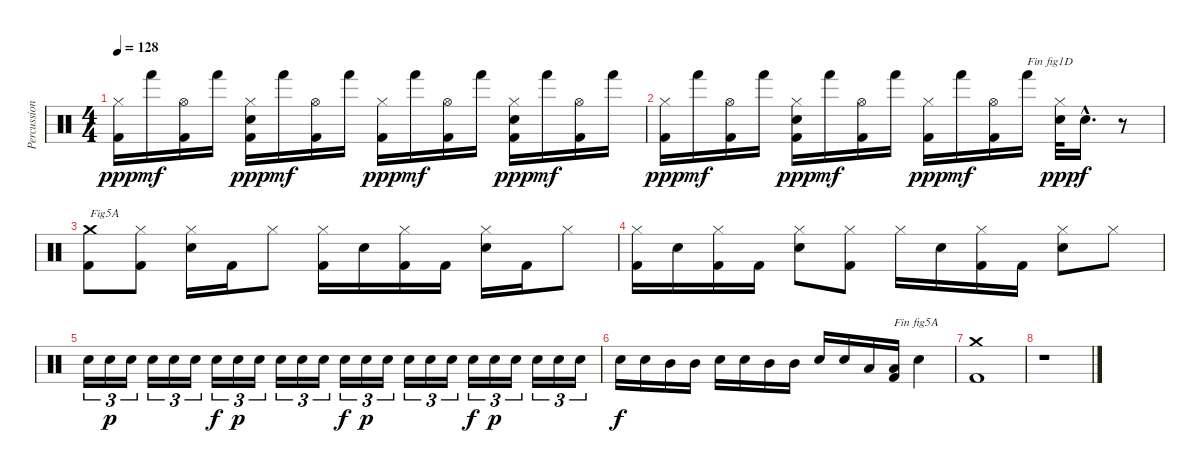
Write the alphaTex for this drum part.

\track ("Percussions" "Percussion") {instrument percussion}
\staff {score}
\articulation defaults
\ts (4 4)
\tempo 128
\clef neutral
\ks c
("Kick (hit) 2" "Hi-Hat (closed)").16{dy ppp} "Hand (hit)".16{dy mf} ("Kick (hit) 2" "Hi-Hat (open)").16 "Hand (hit)".16 ("Kick (hit) 2" "Electric Snare (hit)" "Hi-Hat (closed)").16{dy ppp} "Hand (hit)".16{dy mf} ("Kick (hit) 2" "Hi-Hat (open)").16 "Hand (hit)".16 ("Kick (hit) 2" "Hi-Hat (closed)").16{dy ppp} "Hand (hit)".16{dy mf} ("Kick (hit) 2" "Hi-Hat (open)").16 "Hand (hit)".16 ("Kick (hit) 2" "Electric Snare (hit)" "Hi-Hat (closed)").16{dy ppp} "Hand (hit)".16{dy mf} ("Kick (hit) 2" "Hi-Hat (open)").16 "Hand (hit)".16 |
("Kick (hit) 2" "Hi-Hat (closed)").16{dy ppp} "Hand (hit)".16{dy mf} ("Kick (hit) 2" "Hi-Hat (open)").16 "Hand (hit)".16 ("Kick (hit) 2" "Electric Snare (hit)" "Hi-Hat (closed)").16{dy ppp} "Hand (hit)".16{dy mf} ("Kick (hit) 2" "Hi-Hat (open)").16 "Hand (hit)".16 ("Kick (hit) 2" "Hi-Hat (closed)").16{dy ppp} "Hand (hit)".16{dy mf} ("Kick (hit) 2" "Hi-Hat (open)").16 "Hand (hit)".16{txt "Fin fig1D"} ("Electric Snare (hit)" "Hi-Hat (closed)").32{dy ppp} "Electric Snare (hit)"{hac}.16{d dy f} r.8 |
("Kick (hit) 2" "Crash medium (hit)").8{txt "Fig5A"} ("Kick (hit) 2" "Hi-Hat (closed)").8 ("Electric Snare (hit)" "Hi-Hat (closed)").16 "Kick (hit) 2".16 "Hi-Hat (closed)".8 ("Kick (hit) 2" "Hi-Hat (closed)").16 "Electric Snare (hit)".16 ("Kick (hit) 2" "Hi-Hat (closed)").16 "Kick (hit) 2".16 ("Electric Snare (hit)" "Hi-Hat (closed)").16 "Kick (hit) 2".16 "Hi-Hat (closed)".8 |
("Kick (hit) 2" "Hi-Hat (closed)").16 "Electric Snare (hit)".16 ("Kick (hit) 2" "Hi-Hat (closed)").16 "Kick (hit) 2".16 ("Electric Snare (hit)" "Hi-Hat (closed)").8 ("Kick (hit) 2" "Hi-Hat (closed)").8 "Hi-Hat (closed)".16 "Electric Snare (hit)".16 ("Kick (hit) 2" "Hi-Hat (closed)").16 "Kick (hit) 2".16 ("Electric Snare (hit)" "Hi-Hat (closed)").8 "Hi-Hat (closed)".8 |
"Electric Snare (hit)".16{tu (3 2)} "Electric Snare (hit)".16{tu (3 2) dy p} "Electric Snare (hit)".16{tu (3 2)} "Electric Snare (hit)".16{tu (3 2)} "Electric Snare (hit)".16{tu (3 2)} "Electric Snare (hit)".16{tu (3 2)} "Electric Snare (hit)".16{tu (3 2) dy f} "Electric Snare (hit)".16{tu (3 2) dy p} "Electric Snare (hit)".16{tu (3 2)} "Electric Snare (hit)".16{tu (3 2)} "Electric Snare (hit)".16{tu (3 2)} "Electric Snare (hit)".16{tu (3 2)} "Electric Snare (hit)".16{tu (3 2) dy f} "Electric Snare (hit)".16{tu (3 2) dy p} "Electric Snare (hit)".16{tu (3 2)} "Electric Snare (hit)".16{tu (3 2)} "Electric Snare (hit)".16{tu (3 2)} "Electric Snare (hit)".16{tu (3 2)} "Electric Snare (hit)".16{tu (3 2) dy f} "Electric Snare (hit)".16{tu (3 2) dy p} "Electric Snare (hit)".16{tu (3 2)} "Electric Snare (hit)".16{tu (3 2)} "Electric Snare (hit)".16{tu (3 2)} "Electric Snare (hit)".16{tu (3 2)} |
"Electric Snare (hit)".16{dy f} "Electric Snare (hit)".16 "Mid Tom (hit)".16 "Mid Tom (hit)".16 "Electric Snare (hit)".16 "Electric Snare (hit)".16 "Mid Tom (hit)".16 "Mid Tom (hit)".16 "Electric Snare (hit)".16 "Electric Snare (hit)".16 "Low Tom (hit)".16 ("Kick (hit) 2" "Low Tom (hit)").16{txt "Fin fig5A"} "Electric Snare (hit)".4 |
("Kick (hit) 2" "Crash medium (hit)").1 |
r.1
